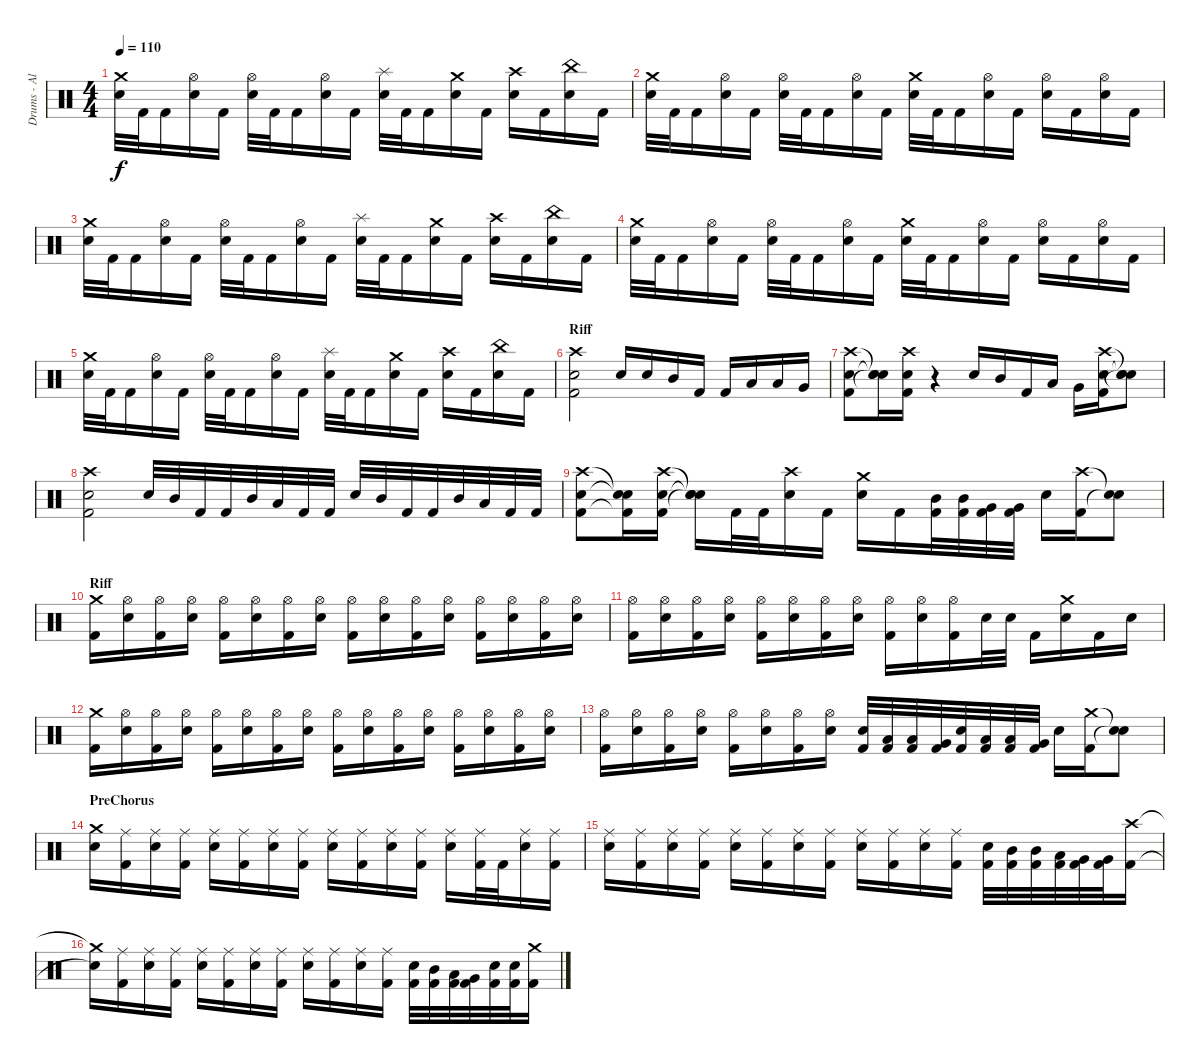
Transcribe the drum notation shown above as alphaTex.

\track ("Drums - Albin" "Drums - Al") {instrument percussion}
\staff {score}
\articulation defaults
\ts (4 4)
\tempo 110
\clef neutral
\ks c
("Crash medium (hit)" "Snare (hit) 2").32{dy f} "Kick (hit) 2".32 "Kick (hit) 2".16 ("Hi-Hat (open)" "Snare (hit) 2").16 "Kick (hit) 2".16 ("Hi-Hat (open)" "Snare (hit) 2").32 "Kick (hit) 2".32 "Kick (hit) 2".16 ("Hi-Hat (open)" "Snare (hit) 2").16 "Kick (hit) 2".16 ("Splash (hit)" "Snare (hit) 2").32 "Kick (hit) 2".32 "Kick (hit) 2".16 ("Crash medium (hit)" "Snare (hit) 2").16 "Kick (hit) 2".16 ("Crash high (hit)" "Snare (hit) 2").16 "Kick (hit) 2".16 ("China (hit)" "Snare (hit) 2").16 "Kick (hit) 2".16 |
("Crash medium (hit)" "Snare (hit) 2").32 "Kick (hit) 2".32 "Kick (hit) 2".16 ("Hi-Hat (open)" "Snare (hit) 2").16 "Kick (hit) 2".16 ("Hi-Hat (open)" "Snare (hit) 2").32 "Kick (hit) 2".32 "Kick (hit) 2".16 ("Hi-Hat (open)" "Snare (hit) 2").16 "Kick (hit) 2".16 ("Crash medium (hit)" "Snare (hit) 2").32 "Kick (hit) 2".32 "Kick (hit) 2".16 ("Hi-Hat (open)" "Snare (hit) 2").16 "Kick (hit) 2".16 ("Hi-Hat (open)" "Snare (hit) 2").16 "Kick (hit) 2".16 ("Hi-Hat (open)" "Snare (hit) 2").16 "Kick (hit) 2".16 |
("Crash medium (hit)" "Snare (hit) 2").32 "Kick (hit) 2".32 "Kick (hit) 2".16 ("Hi-Hat (open)" "Snare (hit) 2").16 "Kick (hit) 2".16 ("Hi-Hat (open)" "Snare (hit) 2").32 "Kick (hit) 2".32 "Kick (hit) 2".16 ("Hi-Hat (open)" "Snare (hit) 2").16 "Kick (hit) 2".16 ("Splash (hit)" "Snare (hit) 2").32 "Kick (hit) 2".32 "Kick (hit) 2".16 ("Crash medium (hit)" "Snare (hit) 2").16 "Kick (hit) 2".16 ("Crash high (hit)" "Snare (hit) 2").16 "Kick (hit) 2".16 ("China (hit)" "Snare (hit) 2").16 "Kick (hit) 2".16 |
("Crash medium (hit)" "Snare (hit) 2").32 "Kick (hit) 2".32 "Kick (hit) 2".16 ("Hi-Hat (open)" "Snare (hit) 2").16 "Kick (hit) 2".16 ("Hi-Hat (open)" "Snare (hit) 2").32 "Kick (hit) 2".32 "Kick (hit) 2".16 ("Hi-Hat (open)" "Snare (hit) 2").16 "Kick (hit) 2".16 ("Crash medium (hit)" "Snare (hit) 2").32 "Kick (hit) 2".32 "Kick (hit) 2".16 ("Hi-Hat (open)" "Snare (hit) 2").16 "Kick (hit) 2".16 ("Hi-Hat (open)" "Snare (hit) 2").16 "Kick (hit) 2".16 ("Hi-Hat (open)" "Snare (hit) 2").16 "Kick (hit) 2".16 |
("Crash medium (hit)" "Snare (hit) 2").32 "Kick (hit) 2".32 "Kick (hit) 2".16 ("Hi-Hat (open)" "Snare (hit) 2").16 "Kick (hit) 2".16 ("Hi-Hat (open)" "Snare (hit) 2").32 "Kick (hit) 2".32 "Kick (hit) 2".16 ("Hi-Hat (open)" "Snare (hit) 2").16 "Kick (hit) 2".16 ("Splash (hit)" "Snare (hit) 2").32 "Kick (hit) 2".32 "Kick (hit) 2".16 ("Crash medium (hit)" "Snare (hit) 2").16 "Kick (hit) 2".16 ("Crash high (hit)" "Snare (hit) 2").16 "Kick (hit) 2".16 ("China (hit)" "Snare (hit) 2").16 "Kick (hit) 2".16 |
\section ("" "Riff")
("Crash high (hit)" "Snare (hit) 2" "Kick (hit) 2").2 "Snare (hit) 2".16 "Snare (hit) 2".16 "Mid Tom (hit)".16 "Kick (hit) 2".16 "Kick (hit) 2".16 "Low Tom (hit)".16 "Low Tom (hit)".16 "Very Low Tom (hit)".16 |
("Crash high (hit)" "Snare (hit) 2" "Kick (hit) 2").8 ("Snare (hit)"{t} "Snare (hit)"{t} "Snare (hit)"{t}).16 ("Crash high (hit)" "Snare (hit) 2" "Kick (hit) 2").16 r.4 "Snare (hit) 2".16 "Mid Tom (hit)".16 "Kick (hit) 2".16 "Low Tom (hit)".16 "Very Low Tom (hit)".16 ("Crash high (hit)" "Snare (hit) 2" "Kick (hit) 2").16 ("Snare (hit)"{t} "Snare (hit)"{t} "Snare (hit)"{t}).8 |
("Crash high (hit)" "Snare (hit) 2" "Kick (hit) 2").2 "Snare (hit) 2".32 "Mid Tom (hit)".32 "Kick (hit) 2".32 "Kick (hit) 2".32 "Mid Tom (hit)".32 "Low Tom (hit)".32 "Kick (hit) 2".32 "Kick (hit) 2".32 "Snare (hit) 2".32 "Mid Tom (hit)".32 "Kick (hit) 2".32 "Kick (hit) 2".32 "Mid Tom (hit)".32 "Low Tom (hit)".32 "Kick (hit) 2".32 "Kick (hit) 2".32 |
("Crash high (hit)" "Snare (hit) 2" "Kick (hit) 2").8 ("Snare (hit)"{t} "Snare (hit)"{t} "Kick (hit) 2"{t}).16 ("Crash high (hit)" "Snare (hit) 2" "Kick (hit) 2").16 ("Snare (hit)"{t} "Snare (hit)"{t} "Snare (hit)"{t}).16 "Kick (hit) 2".32 "Kick (hit) 2".32 ("Crash high (hit)" "Snare (hit) 2").16 "Kick (hit) 2".16 ("Crash medium (hit)" "Snare (hit) 2").16 "Kick (hit) 2".16 ("Mid Tom (hit)" "Kick (hit) 2").32 ("Mid Tom (hit)" "Kick (hit) 2").32 ("Very Low Tom (hit)" "Kick (hit) 2").32 ("Very Low Tom (hit)" "Kick (hit) 2").32 "Snare (hit) 2".16 ("Crash high (hit)" "Kick (hit) 2").16 ("Snare (hit)"{t} "Snare (hit)"{t}).8 |
\section ("" "Riff")
("Crash medium (hit)" "Kick (hit) 2").16 ("Hi-Hat (open)" "Snare (hit) 2").16 ("Hi-Hat (open)" "Kick (hit) 2").16 ("Hi-Hat (open)" "Snare (hit) 2").16 ("Hi-Hat (open)" "Kick (hit) 2").16 ("Hi-Hat (open)" "Snare (hit) 2").16 ("Hi-Hat (open)" "Kick (hit) 2").16 ("Hi-Hat (open)" "Snare (hit) 2").16 ("Hi-Hat (open)" "Kick (hit) 2").16 ("Hi-Hat (open)" "Snare (hit) 2").16 ("Hi-Hat (open)" "Kick (hit) 2").16 ("Hi-Hat (open)" "Snare (hit) 2").16 ("Hi-Hat (open)" "Kick (hit) 2").16 ("Hi-Hat (open)" "Snare (hit) 2").16 ("Hi-Hat (open)" "Kick (hit) 2").16 ("Hi-Hat (open)" "Snare (hit) 2").16 |
("Hi-Hat (open)" "Kick (hit) 2").16 ("Hi-Hat (open)" "Snare (hit) 2").16 ("Hi-Hat (open)" "Kick (hit) 2").16 ("Hi-Hat (open)" "Snare (hit) 2").16 ("Hi-Hat (open)" "Kick (hit) 2").16 ("Hi-Hat (open)" "Snare (hit) 2").16 ("Hi-Hat (open)" "Kick (hit) 2").16 ("Hi-Hat (open)" "Snare (hit) 2").16 ("Hi-Hat (open)" "Kick (hit) 2").16 ("Hi-Hat (open)" "Snare (hit) 2").16 ("Hi-Hat (open)" "Kick (hit) 2").16 "Snare (hit) 2".32 "Snare (hit) 2".32 "Kick (hit) 2".16 ("Crash medium (hit)" "Snare (hit) 2").16 "Kick (hit) 2".16 "Snare (hit) 2".16 |
("Crash medium (hit)" "Kick (hit) 2").16 ("Hi-Hat (open)" "Snare (hit) 2").16 ("Hi-Hat (open)" "Kick (hit) 2").16 ("Hi-Hat (open)" "Snare (hit) 2").16 ("Hi-Hat (open)" "Kick (hit) 2").16 ("Hi-Hat (open)" "Snare (hit) 2").16 ("Hi-Hat (open)" "Kick (hit) 2").16 ("Hi-Hat (open)" "Snare (hit) 2").16 ("Hi-Hat (open)" "Kick (hit) 2").16 ("Hi-Hat (open)" "Snare (hit) 2").16 ("Hi-Hat (open)" "Kick (hit) 2").16 ("Hi-Hat (open)" "Snare (hit) 2").16 ("Hi-Hat (open)" "Kick (hit) 2").16 ("Hi-Hat (open)" "Snare (hit) 2").16 ("Hi-Hat (open)" "Kick (hit) 2").16 ("Hi-Hat (open)" "Snare (hit) 2").16 |
("Hi-Hat (open)" "Kick (hit) 2").16 ("Hi-Hat (open)" "Snare (hit) 2").16 ("Hi-Hat (open)" "Kick (hit) 2").16 ("Hi-Hat (open)" "Snare (hit) 2").16 ("Hi-Hat (open)" "Kick (hit) 2").16 ("Hi-Hat (open)" "Snare (hit) 2").16 ("Hi-Hat (open)" "Kick (hit) 2").16 ("Hi-Hat (open)" "Snare (hit) 2").16 ("Snare (hit) 2" "Kick (hit) 2").32 ("Low Tom (hit)" "Kick (hit) 2").32 ("Low Tom (hit)" "Kick (hit) 2").32 ("Very Low Tom (hit)" "Kick (hit) 2").32 ("Snare (hit) 2" "Kick (hit) 2").32 ("Low Tom (hit)" "Kick (hit) 2").32 ("Low Tom (hit)" "Kick (hit) 2").32 ("Very Low Tom (hit)" "Kick (hit) 2").32 "Snare (hit) 2".16 ("Crash medium (hit)" "Kick (hit) 2").16 ("Snare (hit)"{t} "Snare (hit)"{t}).8 |
\section ("" "PreChorus")
("Crash medium (hit)" "Snare (hit) 2").16 ("Ride (middle)" "Kick (hit) 2").16 ("Ride (middle)" "Snare (hit) 2").16 ("Ride (middle)" "Kick (hit) 2").16 ("Ride (middle)" "Snare (hit) 2").16 ("Ride (middle)" "Kick (hit) 2").16 ("Ride (middle)" "Snare (hit) 2").16 ("Ride (middle)" "Kick (hit) 2").16 ("Ride (middle)" "Snare (hit) 2").16 ("Ride (middle)" "Kick (hit) 2").16 ("Ride (middle)" "Snare (hit) 2").16 ("Ride (middle)" "Kick (hit) 2").16 ("Ride (middle)" "Snare (hit) 2").16 ("Ride (middle)" "Kick (hit) 2").32 "Kick (hit) 2".32 ("Ride (middle)" "Snare (hit) 2").16 ("Ride (middle)" "Kick (hit) 2").16 |
("Ride (middle)" "Snare (hit) 2").16 ("Ride (middle)" "Kick (hit) 2").16 ("Ride (middle)" "Snare (hit) 2").16 ("Ride (middle)" "Kick (hit) 2").16 ("Ride (middle)" "Snare (hit) 2").16 ("Ride (middle)" "Kick (hit) 2").16 ("Ride (middle)" "Snare (hit) 2").16 ("Ride (middle)" "Kick (hit) 2").16 ("Ride (middle)" "Snare (hit) 2").16 ("Ride (middle)" "Kick (hit) 2").16 ("Ride (middle)" "Snare (hit) 2").16 ("Ride (middle)" "Kick (hit) 2").16 ("Snare (hit) 2" "Kick (hit) 2").32 ("Mid Tom (hit)" "Kick (hit) 2").32 ("Mid Tom (hit)" "Kick (hit) 2").32 ("Low Tom (hit)" "Kick (hit) 2").32 ("Very Low Tom (hit)" "Kick (hit) 2").32 ("Very Low Tom (hit)" "Kick (hit) 2").32 ("Crash high (hit)" "Kick (hit) 2").16 |
("Crash medium (hit)"{t} "Snare (hit)"{t}).16 ("Ride (middle)" "Kick (hit) 2").16 ("Ride (middle)" "Snare (hit) 2").16 ("Ride (middle)" "Kick (hit) 2").16 ("Ride (middle)" "Snare (hit) 2").16 ("Ride (middle)" "Kick (hit) 2").16 ("Ride (middle)" "Snare (hit) 2").16 ("Ride (middle)" "Kick (hit) 2").16 ("Ride (middle)" "Snare (hit) 2").16 ("Ride (middle)" "Kick (hit) 2").16 ("Ride (middle)" "Snare (hit) 2").16 ("Ride (middle)" "Kick (hit) 2").16 ("Snare (hit) 2" "Kick (hit) 2").32 ("Mid Tom (hit)" "Kick (hit) 2").32 ("Low Tom (hit)" "Kick (hit) 2").32 ("Very Low Tom (hit)" "Kick (hit) 2").32 ("Snare (hit) 2" "Kick (hit) 2").32 ("Snare (hit) 2" "Kick (hit) 2").32 ("Crash medium (hit)" "Kick (hit) 2").16
